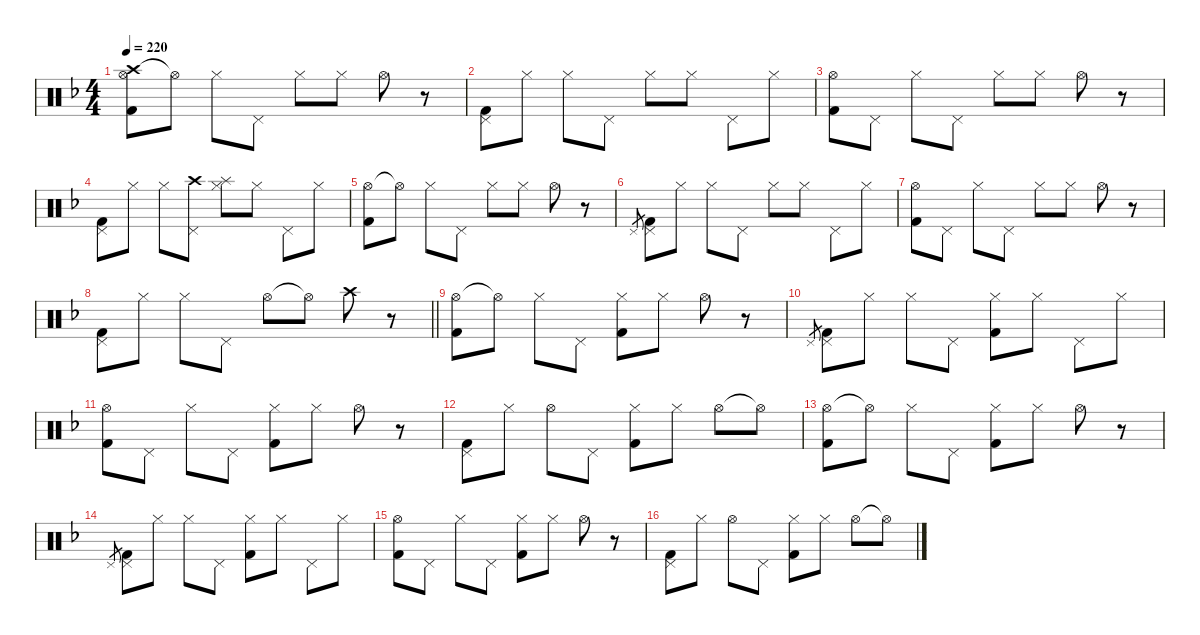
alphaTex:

\hideDynamics
\bracketExtendMode nobrackets
\singleTrackTrackNamePolicy hidden
\multiTrackTrackNamePolicy hidden
\firstSystemTrackNameMode fullname
\firstSystemTrackNameOrientation horizontal
\otherSystemsTrackNameOrientation horizontal
\track ("Drumkit" "Drums") {instrument percussion}
\staff {score}
\articulation defaults
\ts (4 4)
\tempo 220
\clef neutral
\ks dminor
("Crash high (hit)"{acc forcenatural} "Hi-Hat (open)"{acc forcenatural} "Kick (hit) 2"{acc forcenatural}).8{dy mp beam Down} "Hi-Hat (open)"{t acc forcenatural}.8{beam Down} "Hi-Hat (closed)"{acc forcenatural}.8{dy p beam Down} "Pedal Hi-Hat (hit)"{acc forcenatural}.8{beam Down} "Hi-Hat (closed)"{acc forcenatural}.8{dy mp beam Down} "Hi-Hat (closed)"{acc forcenatural}.8{beam Down} "Hi-Hat (open)"{acc forcenatural}.8{beam Down} r.8{beam Down} |
("Pedal Hi-Hat (hit)"{acc forcenatural} "Kick (hit) 2"{acc forcenatural}).8{dy p beam Down} "Hi-Hat (closed)"{acc forcenatural}.8{beam Down} "Hi-Hat (closed)"{acc forcenatural}.8{dy mp beam Down} "Pedal Hi-Hat (hit)"{acc forcenatural}.8{dy mf beam Down} "Hi-Hat (closed)"{acc forcenatural}.8{dy mp beam Down} "Hi-Hat (closed)"{acc forcenatural}.8{beam Down} "Pedal Hi-Hat (hit)"{acc forcenatural}.8{dy p beam Down} "Hi-Hat (closed)"{acc forcenatural}.8{beam Down} |
("Hi-Hat (open)"{acc forcenatural} "Kick (hit) 2"{acc forcenatural}).8{dy mp beam Down} "Pedal Hi-Hat (hit)"{acc forcenatural}.8{beam Down} "Hi-Hat (closed)"{acc forcenatural}.8{dy p beam Down} "Pedal Hi-Hat (hit)"{acc forcenatural}.8{beam Down} "Hi-Hat (closed)"{acc forcenatural}.8{dy mp beam Down} "Hi-Hat (closed)"{acc forcenatural}.8{beam Down} "Hi-Hat (open)"{acc forcenatural}.8{beam Down} r.8{beam Down} |
("Pedal Hi-Hat (hit)"{acc forcenatural} "Kick (hit) 2"{acc forcenatural}).8{dy p beam Down} "Hi-Hat (closed)"{acc forcenatural}.8{beam Down} "Hi-Hat (closed)"{acc forcenatural}.8{dy mp beam Down} ("Crash high (hit)"{acc forcenatural} "Pedal Hi-Hat (hit)"{acc forcenatural}).8{beam Down} ("Splash (hit)"{acc forcenatural} "Hi-Hat (closed)"{acc forcenatural}).8{beam Down} "Hi-Hat (closed)"{acc forcenatural}.8{beam Down} "Pedal Hi-Hat (hit)"{acc forcenatural}.8{dy p beam Down} "Hi-Hat (closed)"{acc forcenatural}.8{beam Down} |
("Hi-Hat (open)"{acc forcenatural} "Kick (hit) 2"{acc forcenatural}).8{dy mp beam Down} "Hi-Hat (open)"{t acc forcenatural}.8{beam Down} "Hi-Hat (closed)"{acc forcenatural}.8{dy p beam Down} "Pedal Hi-Hat (hit)"{acc forcenatural}.8{beam Down} "Hi-Hat (closed)"{acc forcenatural}.8{dy mp beam Down} "Hi-Hat (closed)"{acc forcenatural}.8{beam Down} "Hi-Hat (open)"{acc forcenatural}.8{beam Down} r.8{beam Down} |
"Pedal Hi-Hat (hit)"{acc forcenatural}.8{gr dy p beam Up} ("Pedal Hi-Hat (hit)"{acc forcenatural} "Kick (hit) 2"{acc forcenatural}).8{beam Down} "Hi-Hat (closed)"{acc forcenatural}.8{beam Down} "Hi-Hat (closed)"{acc forcenatural}.8{dy mp beam Down} "Pedal Hi-Hat (hit)"{acc forcenatural}.8{dy mf beam Down} "Hi-Hat (closed)"{acc forcenatural}.8{dy mp beam Down} "Hi-Hat (closed)"{acc forcenatural}.8{beam Down} "Pedal Hi-Hat (hit)"{acc forcenatural}.8{dy p beam Down} "Hi-Hat (closed)"{acc forcenatural}.8{beam Down} |
("Hi-Hat (open)"{acc forcenatural} "Kick (hit) 2"{acc forcenatural}).8{dy mp beam Down} "Pedal Hi-Hat (hit)"{acc forcenatural}.8{beam Down} "Hi-Hat (closed)"{acc forcenatural}.8{dy p beam Down} "Pedal Hi-Hat (hit)"{acc forcenatural}.8{beam Down} "Hi-Hat (closed)"{acc forcenatural}.8{dy mp beam Down} "Hi-Hat (closed)"{acc forcenatural}.8{beam Down} "Hi-Hat (open)"{acc forcenatural}.8{beam Down} r.8{beam Down} |
\barLineRight lightlight
("Pedal Hi-Hat (hit)"{acc forcenatural} "Kick (hit) 2"{acc forcenatural}).8{dy p beam Down} "Hi-Hat (closed)"{acc forcenatural}.8{beam Down} "Hi-Hat (closed)"{acc forcenatural}.8{dy mp beam Down} "Pedal Hi-Hat (hit)"{acc forcenatural}.8{dy mf beam Down} "Hi-Hat (open)"{acc forcenatural}.8{dy mp beam Down} "Hi-Hat (open)"{t acc forcenatural}.8{beam Down} "Crash high (hit)"{acc forcenatural}.8{dy p beam Down} r.8{beam Down} |
("Hi-Hat (open)"{acc forcenatural} "Kick (hit) 2"{acc forcenatural}).8{beam Down} "Hi-Hat (open)"{t acc forcenatural}.8{beam Down} "Hi-Hat (closed)"{acc forcenatural}.8{dy mp beam Down} "Pedal Hi-Hat (hit)"{acc forcenatural}.8{beam Down} ("Hi-Hat (closed)"{acc forcenatural} "Kick (hit) 2"{acc forcenatural}).8{beam Down} "Hi-Hat (closed)"{acc forcenatural}.8{beam Down} "Hi-Hat (open)"{acc forcenatural}.8{beam Down} r.8{beam Down} |
"Pedal Hi-Hat (hit)"{acc forcenatural}.8{gr dy p beam Up} ("Pedal Hi-Hat (hit)"{acc forcenatural} "Kick (hit) 2"{acc forcenatural}).8{beam Down} "Hi-Hat (closed)"{acc forcenatural}.8{beam Down} "Hi-Hat (closed)"{acc forcenatural}.8{dy mp beam Down} "Pedal Hi-Hat (hit)"{acc forcenatural}.8{dy mf beam Down} ("Hi-Hat (closed)"{acc forcenatural} "Kick (hit) 2"{acc forcenatural}).8{dy mp beam Down} "Hi-Hat (closed)"{acc forcenatural}.8{beam Down} "Pedal Hi-Hat (hit)"{acc forcenatural}.8{beam Down} "Hi-Hat (closed)"{acc forcenatural}.8{dy p beam Down} |
("Hi-Hat (open)"{acc forcenatural} "Kick (hit) 2"{acc forcenatural}).8{beam Down} "Pedal Hi-Hat (hit)"{acc forcenatural}.8{beam Down} "Hi-Hat (closed)"{acc forcenatural}.8{dy mp beam Down} "Pedal Hi-Hat (hit)"{acc forcenatural}.8{beam Down} ("Hi-Hat (closed)"{acc forcenatural} "Kick (hit) 2"{acc forcenatural}).8{beam Down} "Hi-Hat (closed)"{acc forcenatural}.8{beam Down} "Hi-Hat (open)"{acc forcenatural}.8{beam Down} r.8{beam Down} |
("Pedal Hi-Hat (hit)"{acc forcenatural} "Kick (hit) 2"{acc forcenatural}).8{beam Down} "Hi-Hat (closed)"{acc forcenatural}.8{dy p beam Down} "Hi-Hat (open)"{acc forcenatural}.8{dy mp beam Down} "Pedal Hi-Hat (hit)"{acc forcenatural}.8{dy f beam Down} ("Hi-Hat (closed)"{acc forcenatural} "Kick (hit) 2"{acc forcenatural}).8{dy mp beam Down} "Hi-Hat (closed)"{acc forcenatural}.8{beam Down} "Hi-Hat (open)"{acc forcenatural}.8{dy p beam Down} "Hi-Hat (open)"{t acc forcenatural}.8{beam Down} |
("Hi-Hat (open)"{acc forcenatural} "Kick (hit) 2"{acc forcenatural}).8{beam Down} "Hi-Hat (open)"{t acc forcenatural}.8{beam Down} "Hi-Hat (closed)"{acc forcenatural}.8{dy mp beam Down} "Pedal Hi-Hat (hit)"{acc forcenatural}.8{beam Down} ("Hi-Hat (closed)"{acc forcenatural} "Kick (hit) 2"{acc forcenatural}).8{beam Down} "Hi-Hat (closed)"{acc forcenatural}.8{beam Down} "Hi-Hat (open)"{acc forcenatural}.8{beam Down} r.8{beam Down} |
"Pedal Hi-Hat (hit)"{acc forcenatural}.8{gr dy p beam Up} ("Pedal Hi-Hat (hit)"{acc forcenatural} "Kick (hit) 2"{acc forcenatural}).8{beam Down} "Hi-Hat (closed)"{acc forcenatural}.8{beam Down} "Hi-Hat (closed)"{acc forcenatural}.8{dy mp beam Down} "Pedal Hi-Hat (hit)"{acc forcenatural}.8{dy mf beam Down} ("Hi-Hat (closed)"{acc forcenatural} "Kick (hit) 2"{acc forcenatural}).8{dy mp beam Down} "Hi-Hat (closed)"{acc forcenatural}.8{beam Down} "Pedal Hi-Hat (hit)"{acc forcenatural}.8{beam Down} "Hi-Hat (closed)"{acc forcenatural}.8{dy p beam Down} |
("Hi-Hat (open)"{acc forcenatural} "Kick (hit) 2"{acc forcenatural}).8{beam Down} "Pedal Hi-Hat (hit)"{acc forcenatural}.8{beam Down} "Hi-Hat (closed)"{acc forcenatural}.8{dy mp beam Down} "Pedal Hi-Hat (hit)"{acc forcenatural}.8{beam Down} ("Hi-Hat (closed)"{acc forcenatural} "Kick (hit) 2"{acc forcenatural}).8{beam Down} "Hi-Hat (closed)"{acc forcenatural}.8{beam Down} "Hi-Hat (open)"{acc forcenatural}.8{beam Down} r.8{beam Down} |
("Pedal Hi-Hat (hit)"{acc forcenatural} "Kick (hit) 2"{acc forcenatural}).8{beam Down} "Hi-Hat (closed)"{acc forcenatural}.8{dy p beam Down} "Hi-Hat (open)"{acc forcenatural}.8{dy mp beam Down} "Pedal Hi-Hat (hit)"{acc forcenatural}.8{dy f beam Down} ("Hi-Hat (closed)"{acc forcenatural} "Kick (hit) 2"{acc forcenatural}).8{dy mp beam Down} "Hi-Hat (closed)"{acc forcenatural}.8{beam Down} "Hi-Hat (open)"{acc forcenatural}.8{dy p beam Down} "Hi-Hat (open)"{t acc forcenatural}.8{beam Down}
